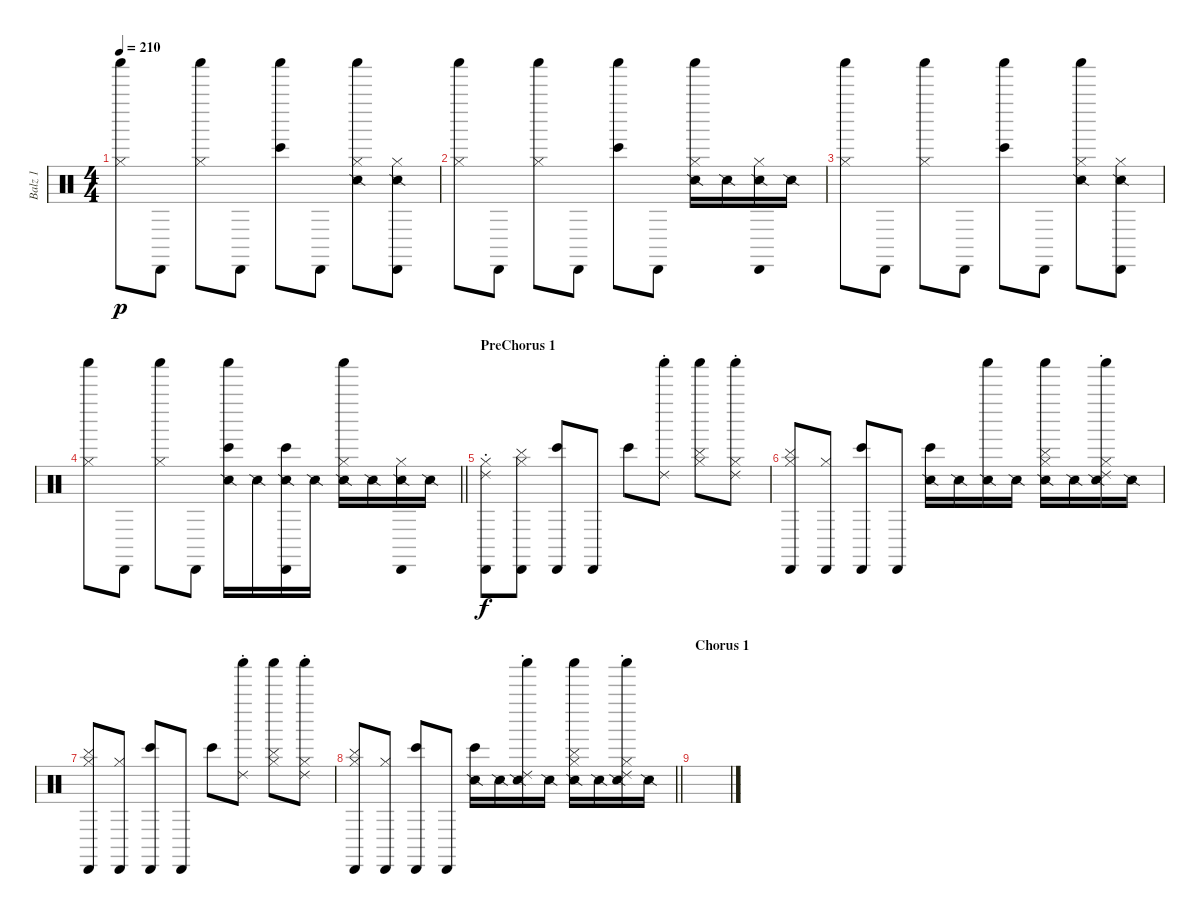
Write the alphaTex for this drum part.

\track ("Balz 1" "Balz 1") {instrument percussion}
\staff {score}
\articulation defaults
\ts (4 4)
\tempo 210
\clef neutral
\ks c
("Shaker (hit)" "Hi-Hat (closed)").8{dy p} "Cabasa (hit)".8 ("Shaker (hit)" "Hi-Hat (closed)").8 "Cabasa (hit)".8 ("Shaker (hit)" "Bongo High (hit)").8 "Cabasa (hit)".8 ("Shaker (hit)" "Hi-Hat (closed)" "Snare (side stick) 2").8 ("Cabasa (hit)" "Hi-Hat (closed)" "Snare (side stick) 2").8 |
("Shaker (hit)" "Hi-Hat (closed)").8 "Cabasa (hit)".8 ("Shaker (hit)" "Hi-Hat (closed)").8 "Cabasa (hit)".8 ("Shaker (hit)" "Bongo High (hit)").8 "Cabasa (hit)".8 ("Shaker (hit)" "Hi-Hat (closed)" "Snare (side stick) 2").16 "Snare (side stick) 2".16 ("Cabasa (hit)" "Hi-Hat (closed)" "Snare (side stick) 2").16 "Snare (side stick) 2".16 |
("Shaker (hit)" "Hi-Hat (closed)").8 "Cabasa (hit)".8 ("Shaker (hit)" "Hi-Hat (closed)").8 "Cabasa (hit)".8 ("Shaker (hit)" "Bongo High (hit)").8 "Cabasa (hit)".8 ("Shaker (hit)" "Hi-Hat (closed)" "Snare (side stick) 2").8 ("Cabasa (hit)" "Hi-Hat (closed)" "Snare (side stick) 2").8 |
\barLineRight lightlight
("Shaker (hit)" "Hi-Hat (closed)").8 "Cabasa (hit)".8 ("Shaker (hit)" "Hi-Hat (closed)").8 "Cabasa (hit)".8 ("Shaker (hit)" "Bongo High (hit)" "Snare (side stick) 2").16 "Snare (side stick) 2".16 ("Cabasa (hit)" "Bongo High (hit)" "Snare (side stick) 2").16 "Snare (side stick) 2".16 ("Shaker (hit)" "Hi-Hat (closed)" "Snare (side stick) 2").16 "Snare (side stick) 2".16 ("Cabasa (hit)" "Hi-Hat (closed)" "Snare (side stick) 2").16 "Snare (side stick) 2".16 |
\section ("" "PreChorus 1")
("Ride (choke) 2" "Hi-Hat (closed)" "Cabasa (hit)").8{dy f} ("Cymbal (hit)" "Hi-Hat (closed)" "Cabasa (hit)").8 ("Bongo High (hit)" "Cabasa (hit)").8 "Cabasa (hit)".8 "Bongo High (hit)".8 ("Ride (choke) 2" "Shaker (hit)").8 ("Cymbal (hit)" "Shaker (hit)" "Hi-Hat (closed)").8 ("Ride (choke) 2" "Shaker (hit)" "Hi-Hat (closed)").8 |
("Cymbal (hit)" "Hi-Hat (closed)" "Cabasa (hit)").8 ("Hi-Hat (closed)" "Cabasa (hit)").8 ("Bongo High (hit)" "Cabasa (hit)").8 "Cabasa (hit)".8 ("Bongo High (hit)" "Snare (side stick) 2").16 "Snare (side stick) 2".16 ("Shaker (hit)" "Snare (side stick) 2").16 "Snare (side stick) 2".16 ("Cymbal (hit)" "Shaker (hit)" "Hi-Hat (closed)" "Snare (side stick) 2").16 "Snare (side stick) 2".16 ("Ride (choke) 2" "Shaker (hit)" "Hi-Hat (closed)" "Snare (side stick) 2").16 "Snare (side stick) 2".16 |
("Cymbal (hit)" "Hi-Hat (closed)" "Cabasa (hit)").8 ("Hi-Hat (closed)" "Cabasa (hit)").8 ("Bongo High (hit)" "Cabasa (hit)").8 "Cabasa (hit)".8 "Bongo High (hit)".8 ("Ride (choke) 2" "Shaker (hit)").8 ("Cymbal (hit)" "Shaker (hit)" "Hi-Hat (closed)").8 ("Ride (choke) 2" "Shaker (hit)" "Hi-Hat (closed)").8 |
\barLineRight lightlight
("Cymbal (hit)" "Hi-Hat (closed)" "Cabasa (hit)").8 ("Hi-Hat (closed)" "Cabasa (hit)").8 ("Bongo High (hit)" "Cabasa (hit)").8 "Cabasa (hit)".8 ("Bongo High (hit)" "Snare (side stick) 2").16 "Snare (side stick) 2".16 ("Ride (choke) 2" "Shaker (hit)" "Snare (side stick) 2").16 "Snare (side stick) 2".16 ("Cymbal (hit)" "Shaker (hit)" "Hi-Hat (closed)" "Snare (side stick) 2").16 "Snare (side stick) 2".16 ("Ride (choke) 2" "Shaker (hit)" "Hi-Hat (closed)" "Snare (side stick) 2").16 "Snare (side stick) 2".16 |
\section ("" "Chorus 1")
